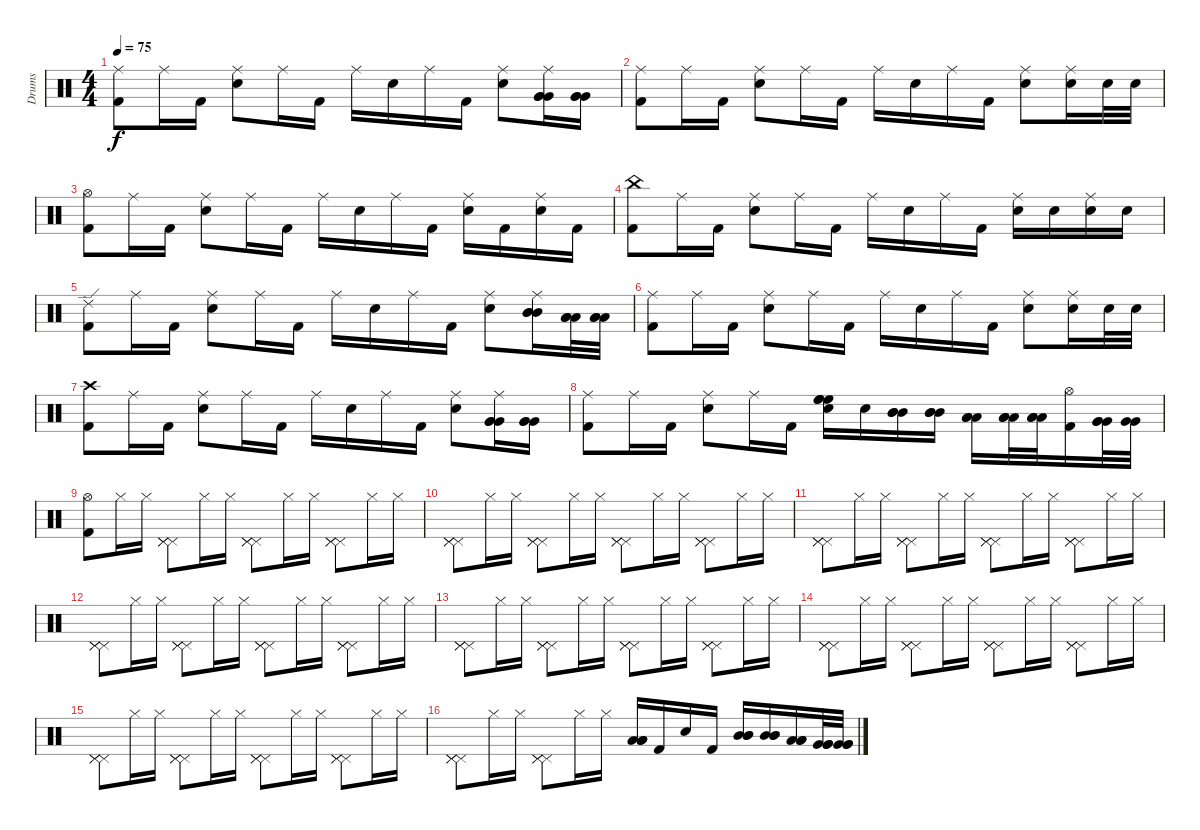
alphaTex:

\track ("Drums" "Drums") {instrument percussion}
\staff {score}
\articulation defaults
\ts (4 4)
\tempo 75
\clef neutral
\ks c
("Ride (middle)" "Kick (hit) 2").8{dy f} "Ride (middle)".16 "Kick (hit) 2".16 ("Ride (middle)" "Electric Snare (hit)").8 "Ride (middle)".16 "Kick (hit) 2".16 "Ride (middle)".16 "Electric Snare (hit)".16 "Ride (middle)".16 "Kick (hit) 2".16 ("Ride (middle)" "Electric Snare (hit)").8 ("Ride (middle)" "Very Low Tom (hit)" "Very Low Tom (hit)" "Very Low Tom (hit)").16 ("Very Low Tom (hit)" "Very Low Tom (hit)" "Very Low Tom (hit)").16 |
("Ride (middle)" "Kick (hit) 2").8 "Ride (middle)".16 "Kick (hit) 2".16 ("Ride (middle)" "Electric Snare (hit)").8 "Ride (middle)".16 "Kick (hit) 2".16 "Ride (middle)".16 "Electric Snare (hit)".16 "Ride (middle)".16 "Kick (hit) 2".16 ("Ride (middle)" "Electric Snare (hit)").8 ("Ride (middle)" "Electric Snare (hit)").16 "Electric Snare (hit)".32 "Electric Snare (hit)".32 |
("Hi-Hat (open)" "Kick (hit) 2").8 "Ride (middle)".16 "Kick (hit) 2".16 ("Ride (middle)" "Electric Snare (hit)").8 "Ride (middle)".16 "Kick (hit) 2".16 "Ride (middle)".16 "Electric Snare (hit)".16 "Ride (middle)".16 "Kick (hit) 2".16 ("Ride (middle)" "Electric Snare (hit)").16 "Kick (hit) 2".16 ("Ride (middle)" "Electric Snare (hit)").16 "Kick (hit) 2".16 |
("China (hit)" "Kick (hit) 2").8 "Ride (middle)".16 "Kick (hit) 2".16 ("Ride (middle)" "Electric Snare (hit)").8 "Ride (middle)".16 "Kick (hit) 2".16 "Ride (middle)".16 "Electric Snare (hit)".16 "Ride (middle)".16 "Kick (hit) 2".16 ("Ride (middle)" "Electric Snare (hit)").16 "Electric Snare (hit)".16 ("Ride (middle)" "Electric Snare (hit)").16 "Electric Snare (hit)".16 |
("Ride (edge) 2" "Kick (hit) 2").8 "Ride (middle)".16 "Kick (hit) 2".16 ("Ride (middle)" "Electric Snare (hit)").8 "Ride (middle)".16 "Kick (hit) 2".16 "Ride (middle)".16 "Electric Snare (hit)".16 "Ride (middle)".16 "Kick (hit) 2".16 ("Ride (middle)" "Electric Snare (hit)").8 ("Ride (middle)" "Mid Tom (hit)" "Mid Tom (hit)" "Mid Tom (hit)").16 ("Low Tom (hit)" "Low Tom (hit)" "Low Tom (hit)").32 ("Low Tom (hit)" "Low Tom (hit)" "Low Tom (hit)").32 |
("Ride (middle)" "Kick (hit) 2").8 "Ride (middle)".16 "Kick (hit) 2".16 ("Ride (middle)" "Electric Snare (hit)").8 "Ride (middle)".16 "Kick (hit) 2".16 "Ride (middle)".16 "Electric Snare (hit)".16 "Ride (middle)".16 "Kick (hit) 2".16 ("Ride (middle)" "Electric Snare (hit)").8 ("Ride (middle)" "Electric Snare (hit)").16 "Electric Snare (hit)".32 "Electric Snare (hit)".32 |
("Crash high (hit)" "Kick (hit) 2").8 "Ride (middle)".16 "Kick (hit) 2".16 ("Ride (middle)" "Electric Snare (hit)").8 "Ride (middle)".16 "Kick (hit) 2".16 "Ride (middle)".16 "Electric Snare (hit)".16 "Ride (middle)".16 "Kick (hit) 2".16 ("Ride (middle)" "Electric Snare (hit)").8 ("Ride (middle)" "Very Low Tom (hit)" "Very Low Tom (hit)" "Very Low Tom (hit)").16 ("Very Low Tom (hit)" "Very Low Tom (hit)" "Very Low Tom (hit)").16 |
("Ride (middle)" "Kick (hit) 2").8 "Ride (middle)".16 "Kick (hit) 2".16 ("Ride (middle)" "Electric Snare (hit)").8 "Ride (middle)".16 "Kick (hit) 2".16 ("Electric Snare (hit)" "High Floor Tom (hit)" "High Floor Tom (hit)" "High Floor Tom (hit)").16 "Electric Snare (hit)".16 ("Mid Tom (hit)" "Mid Tom (hit)" "Mid Tom (hit)").16 ("Mid Tom (hit)" "Mid Tom (hit)" "Mid Tom (hit)").16 ("Low Tom (hit)" "Low Tom (hit)" "Low Tom (hit)").16 ("Low Tom (hit)" "Low Tom (hit)" "Low Tom (hit)").32 ("Low Tom (hit)" "Low Tom (hit)" "Low Tom (hit)").32 ("Hi-Hat (open)" "Kick (hit) 2").16 ("Very Low Tom (hit)" "Very Low Tom (hit)" "Very Low Tom (hit)").32 ("Very Low Tom (hit)" "Very Low Tom (hit)").32 |
("Hi-Hat (open)" "Kick (hit) 2").8 "Hi-Hat (closed)".16 "Hi-Hat (closed)".16 ("Pedal Hi-Hat (hit)" "Pedal Hi-Hat (hit)" "Pedal Hi-Hat (hit)").8 "Hi-Hat (closed)".16 "Hi-Hat (closed)".16 ("Pedal Hi-Hat (hit)" "Pedal Hi-Hat (hit)" "Pedal Hi-Hat (hit)").8 "Hi-Hat (closed)".16 "Hi-Hat (closed)".16 ("Pedal Hi-Hat (hit)" "Pedal Hi-Hat (hit)" "Pedal Hi-Hat (hit)").8 "Hi-Hat (closed)".16 "Hi-Hat (closed)".16 |
("Pedal Hi-Hat (hit)" "Pedal Hi-Hat (hit)" "Pedal Hi-Hat (hit)").8 "Hi-Hat (closed)".16 "Hi-Hat (closed)".16 ("Pedal Hi-Hat (hit)" "Pedal Hi-Hat (hit)" "Pedal Hi-Hat (hit)").8 "Hi-Hat (closed)".16 "Hi-Hat (closed)".16 ("Pedal Hi-Hat (hit)" "Pedal Hi-Hat (hit)" "Pedal Hi-Hat (hit)").8 "Hi-Hat (closed)".16 "Hi-Hat (closed)".16 ("Pedal Hi-Hat (hit)" "Pedal Hi-Hat (hit)" "Pedal Hi-Hat (hit)").8 "Hi-Hat (closed)".16 "Hi-Hat (closed)".16 |
("Pedal Hi-Hat (hit)" "Pedal Hi-Hat (hit)" "Pedal Hi-Hat (hit)").8 "Hi-Hat (closed)".16 "Hi-Hat (closed)".16 ("Pedal Hi-Hat (hit)" "Pedal Hi-Hat (hit)" "Pedal Hi-Hat (hit)").8 "Hi-Hat (closed)".16 "Hi-Hat (closed)".16 ("Pedal Hi-Hat (hit)" "Pedal Hi-Hat (hit)" "Pedal Hi-Hat (hit)").8 "Hi-Hat (closed)".16 "Hi-Hat (closed)".16 ("Pedal Hi-Hat (hit)" "Pedal Hi-Hat (hit)" "Pedal Hi-Hat (hit)").8 "Hi-Hat (closed)".16 "Hi-Hat (closed)".16 |
("Pedal Hi-Hat (hit)" "Pedal Hi-Hat (hit)" "Pedal Hi-Hat (hit)").8 "Hi-Hat (closed)".16 "Hi-Hat (closed)".16 ("Pedal Hi-Hat (hit)" "Pedal Hi-Hat (hit)" "Pedal Hi-Hat (hit)").8 "Hi-Hat (closed)".16 "Hi-Hat (closed)".16 ("Pedal Hi-Hat (hit)" "Pedal Hi-Hat (hit)" "Pedal Hi-Hat (hit)").8 "Hi-Hat (closed)".16 "Hi-Hat (closed)".16 ("Pedal Hi-Hat (hit)" "Pedal Hi-Hat (hit)" "Pedal Hi-Hat (hit)").8 "Hi-Hat (closed)".16 "Hi-Hat (closed)".16 |
("Pedal Hi-Hat (hit)" "Pedal Hi-Hat (hit)" "Pedal Hi-Hat (hit)").8 "Hi-Hat (closed)".16 "Hi-Hat (closed)".16 ("Pedal Hi-Hat (hit)" "Pedal Hi-Hat (hit)" "Pedal Hi-Hat (hit)").8 "Hi-Hat (closed)".16 "Hi-Hat (closed)".16 ("Pedal Hi-Hat (hit)" "Pedal Hi-Hat (hit)" "Pedal Hi-Hat (hit)").8 "Hi-Hat (closed)".16 "Hi-Hat (closed)".16 ("Pedal Hi-Hat (hit)" "Pedal Hi-Hat (hit)" "Pedal Hi-Hat (hit)").8 "Hi-Hat (closed)".16 "Hi-Hat (closed)".16 |
("Pedal Hi-Hat (hit)" "Pedal Hi-Hat (hit)" "Pedal Hi-Hat (hit)").8 "Hi-Hat (closed)".16 "Hi-Hat (closed)".16 ("Pedal Hi-Hat (hit)" "Pedal Hi-Hat (hit)" "Pedal Hi-Hat (hit)").8 "Hi-Hat (closed)".16 "Hi-Hat (closed)".16 ("Pedal Hi-Hat (hit)" "Pedal Hi-Hat (hit)" "Pedal Hi-Hat (hit)").8 "Hi-Hat (closed)".16 "Hi-Hat (closed)".16 ("Pedal Hi-Hat (hit)" "Pedal Hi-Hat (hit)" "Pedal Hi-Hat (hit)").8 "Hi-Hat (closed)".16 "Hi-Hat (closed)".16 |
("Pedal Hi-Hat (hit)" "Pedal Hi-Hat (hit)" "Pedal Hi-Hat (hit)").8 "Hi-Hat (closed)".16 "Hi-Hat (closed)".16 ("Pedal Hi-Hat (hit)" "Pedal Hi-Hat (hit)" "Pedal Hi-Hat (hit)").8 "Hi-Hat (closed)".16 "Hi-Hat (closed)".16 ("Pedal Hi-Hat (hit)" "Pedal Hi-Hat (hit)" "Pedal Hi-Hat (hit)").8 "Hi-Hat (closed)".16 "Hi-Hat (closed)".16 ("Pedal Hi-Hat (hit)" "Pedal Hi-Hat (hit)" "Pedal Hi-Hat (hit)").8 "Hi-Hat (closed)".16 "Hi-Hat (closed)".16 |
("Pedal Hi-Hat (hit)" "Pedal Hi-Hat (hit)" "Pedal Hi-Hat (hit)").8 "Hi-Hat (closed)".16 "Hi-Hat (closed)".16 ("Pedal Hi-Hat (hit)" "Pedal Hi-Hat (hit)" "Pedal Hi-Hat (hit)").8 "Hi-Hat (closed)".16 "Hi-Hat (closed)".16 ("Low Tom (hit)" "Low Tom (hit)" "Low Tom (hit)").16 "Kick (hit) 2".16 "Electric Snare (hit)".16 "Kick (hit) 2".16 ("Mid Tom (hit)" "Mid Tom (hit)" "Mid Tom (hit)").16 ("Mid Tom (hit)" "Mid Tom (hit)" "Mid Tom (hit)").16 ("Low Tom (hit)" "Low Tom (hit)" "Low Tom (hit)").16 ("Very Low Tom (hit)" "Very Low Tom (hit)" "Very Low Tom (hit)").32 ("Very Low Tom (hit)" "Very Low Tom (hit)" "Very Low Tom (hit)").32
